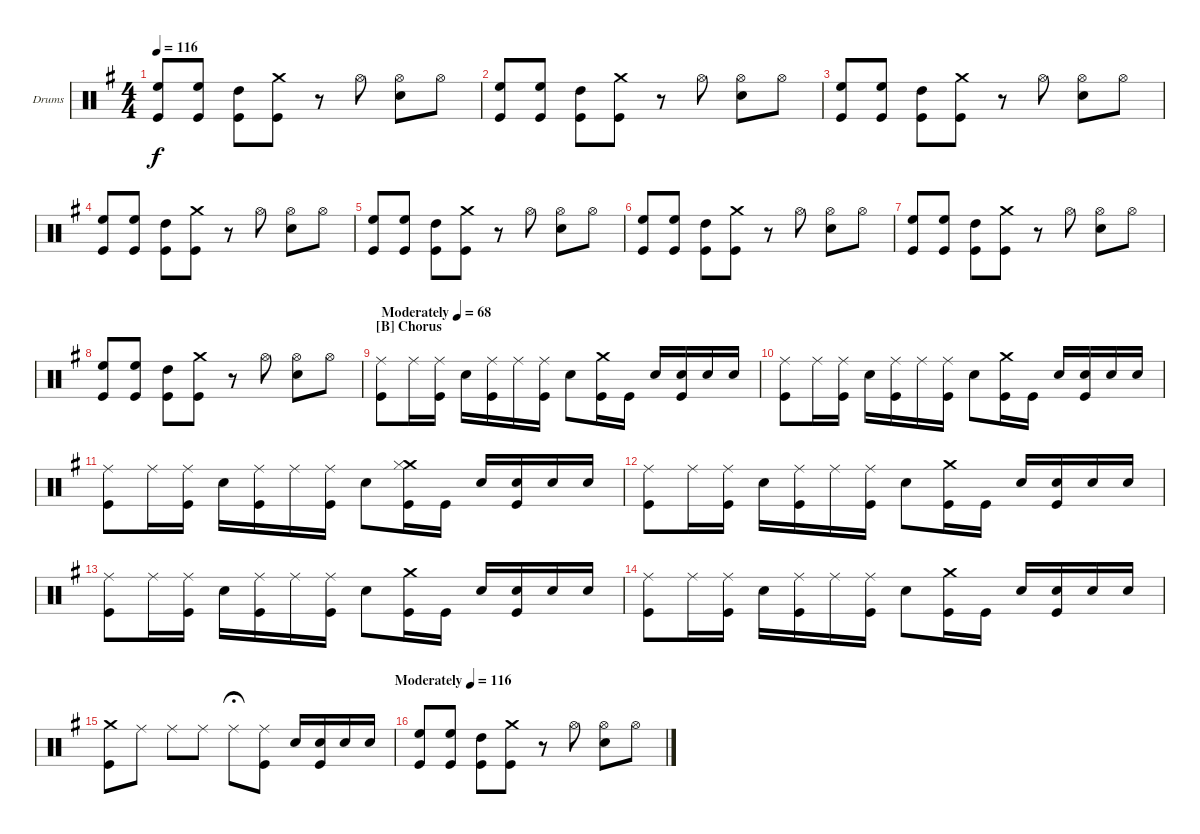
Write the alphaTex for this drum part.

\defaultSystemsLayout 4
\bracketExtendMode groupsimilarinstruments
\firstSystemTrackNameOrientation horizontal
\otherSystemsTrackNameOrientation horizontal
\track ("Drumkit" "Drums") {instrument percussion}
\staff {score}
\articulation defaults
\ts (4 4)
\tempo 116
\clef neutral
\scale
1.02648
\ks g
("High Floor Tom (hit)" "Kick (hit)").8{dy f} ("High Floor Tom (hit)" "Kick (hit)").8 ("High Tom (hit)" "Kick (hit)").8 ("Crash medium (hit)" "Kick (hit)").8 r.8 "Hi-Hat (open)".8 ("Hi-Hat (open)" "Snare (hit) 2").8 "Hi-Hat (open)".8 |
\scale
0.973518 ("High Floor Tom (hit)" "Kick (hit)").8 ("High Floor Tom (hit)" "Kick (hit)").8 ("High Tom (hit)" "Kick (hit)").8 ("Crash medium (hit)" "Kick (hit)").8 r.8 "Hi-Hat (open)".8 ("Hi-Hat (open)" "Snare (hit) 2").8 "Hi-Hat (open)".8 |
\scale
1.02648 ("High Floor Tom (hit)" "Kick (hit)").8 ("High Floor Tom (hit)" "Kick (hit)").8 ("High Tom (hit)" "Kick (hit)").8 ("Crash medium (hit)" "Kick (hit)").8 r.8 "Hi-Hat (open)".8 ("Hi-Hat (open)" "Snare (hit) 2").8 "Hi-Hat (open)".8 |
\scale
0.973518 ("High Floor Tom (hit)" "Kick (hit)").8 ("High Floor Tom (hit)" "Kick (hit)").8 ("High Tom (hit)" "Kick (hit)").8 ("Crash medium (hit)" "Kick (hit)").8 r.8 "Hi-Hat (open)".8 ("Hi-Hat (open)" "Snare (hit) 2").8 "Hi-Hat (open)".8 |
\scale
1.02648 ("High Floor Tom (hit)" "Kick (hit)").8 ("High Floor Tom (hit)" "Kick (hit)").8 ("High Tom (hit)" "Kick (hit)").8 ("Crash medium (hit)" "Kick (hit)").8 r.8 "Hi-Hat (open)".8 ("Hi-Hat (open)" "Snare (hit) 2").8 "Hi-Hat (open)".8 |
\scale
0.973518 ("High Floor Tom (hit)" "Kick (hit)").8 ("High Floor Tom (hit)" "Kick (hit)").8 ("High Tom (hit)" "Kick (hit)").8 ("Crash medium (hit)" "Kick (hit)").8 r.8 "Hi-Hat (open)".8 ("Hi-Hat (open)" "Snare (hit) 2").8 "Hi-Hat (open)".8 |
\scale
1.02648 ("High Floor Tom (hit)" "Kick (hit)").8 ("High Floor Tom (hit)" "Kick (hit)").8 ("High Tom (hit)" "Kick (hit)").8 ("Crash medium (hit)" "Kick (hit)").8 r.8 "Hi-Hat (open)".8 ("Hi-Hat (open)" "Snare (hit) 2").8 "Hi-Hat (open)".8 |
\scale
0.973518 ("High Floor Tom (hit)" "Kick (hit)").8 ("High Floor Tom (hit)" "Kick (hit)").8 ("High Tom (hit)" "Kick (hit)").8 ("Crash medium (hit)" "Kick (hit)").8 r.8 "Hi-Hat (open)".8 ("Hi-Hat (open)" "Snare (hit) 2").8 "Hi-Hat (open)".8 |
\section ("B" "Chorus")
\tempo (68 "Moderately")
\scale
1.02648 ("Ride (middle)" "Kick (hit)").8 "Ride (middle)".16 ("Ride (middle)" "Kick (hit)").16 "Snare (hit) 2".16 ("Ride (middle)" "Kick (hit)").16 "Ride (middle)".16 ("Ride (middle)" "Kick (hit)").16 "Snare (hit) 2".8 ("Crash medium (hit)" "Kick (hit)").16 "Kick (hit)".16 "Snare (hit) 2".16 ("Snare (hit) 2" "Kick (hit)").16 "Snare (hit) 2".16 "Snare (hit) 2".16 |
\scale
0.973518 ("Ride (middle)" "Kick (hit)").8 "Ride (middle)".16 ("Ride (middle)" "Kick (hit)").16 "Snare (hit) 2".16 ("Ride (middle)" "Kick (hit)").16 "Ride (middle)".16 ("Ride (middle)" "Kick (hit)").16 "Snare (hit) 2".8 ("Crash medium (hit)" "Kick (hit)").16 "Kick (hit)".16 "Snare (hit) 2".16 ("Snare (hit) 2" "Kick (hit)").16 "Snare (hit) 2".16 "Snare (hit) 2".16 |
\scale
1.02648 ("Ride (middle)" "Kick (hit)").8 "Ride (middle)".16 ("Ride (middle)" "Kick (hit)").16 "Snare (hit) 2".16 ("Ride (middle)" "Kick (hit)").16 "Ride (middle)".16 ("Ride (middle)" "Kick (hit)").16 "Snare (hit) 2".8 ("Crash medium (hit)" "Kick (hit)" "Hi-Hat (closed)").16 "Kick (hit)".16 "Snare (hit) 2".16 ("Snare (hit) 2" "Kick (hit)").16 "Snare (hit) 2".16 "Snare (hit) 2".16 |
\scale
0.973518 ("Ride (middle)" "Kick (hit)").8 "Ride (middle)".16 ("Ride (middle)" "Kick (hit)").16 "Snare (hit) 2".16 ("Ride (middle)" "Kick (hit)").16 "Ride (middle)".16 ("Ride (middle)" "Kick (hit)").16 "Snare (hit) 2".8 ("Crash medium (hit)" "Kick (hit)").16 "Kick (hit)".16 "Snare (hit) 2".16 ("Snare (hit) 2" "Kick (hit)").16 "Snare (hit) 2".16 "Snare (hit) 2".16 |
\scale
1.02648 ("Ride (middle)" "Kick (hit)").8 "Ride (middle)".16 ("Ride (middle)" "Kick (hit)").16 "Snare (hit) 2".16 ("Ride (middle)" "Kick (hit)").16 "Ride (middle)".16 ("Ride (middle)" "Kick (hit)").16 "Snare (hit) 2".8 ("Crash medium (hit)" "Kick (hit)").16 "Kick (hit)".16 "Snare (hit) 2".16 ("Snare (hit) 2" "Kick (hit)").16 "Snare (hit) 2".16 "Snare (hit) 2".16 |
\scale
0.973518 ("Ride (middle)" "Kick (hit)").8 "Ride (middle)".16 ("Ride (middle)" "Kick (hit)").16 "Snare (hit) 2".16 ("Ride (middle)" "Kick (hit)").16 "Ride (middle)".16 ("Ride (middle)" "Kick (hit)").16 "Snare (hit) 2".8 ("Crash medium (hit)" "Kick (hit)").16 "Kick (hit)".16 "Snare (hit) 2".16 ("Snare (hit) 2" "Kick (hit)").16 "Snare (hit) 2".16 "Snare (hit) 2".16 |
\tempo (116 "Moderately" 1)
\scale
1.02648 ("Crash medium (hit)" "Kick (hit)").8 "Ride (middle)".8 "Ride (middle)".8 "Ride (middle)".8 "Ride (middle)".8{fermata (medium 0.5)} ("Ride (middle)" "Kick (hit)").8 "Snare (hit) 2".16 ("Snare (hit) 2" "Kick (hit)").16 "Snare (hit) 2".16 "Snare (hit) 2".16 |
\scale
0.973518 ("High Floor Tom (hit)" "Kick (hit)").8 ("High Floor Tom (hit)" "Kick (hit)").8 ("High Tom (hit)" "Kick (hit)").8 ("Crash medium (hit)" "Kick (hit)").8 r.8 "Hi-Hat (open)".8 ("Hi-Hat (open)" "Snare (hit) 2").8 "Hi-Hat (open)".8
